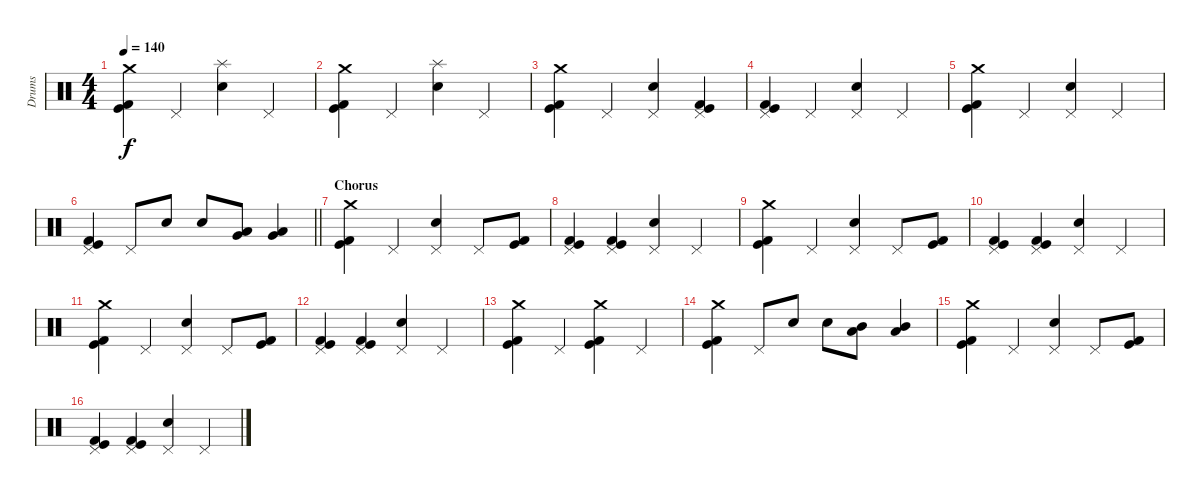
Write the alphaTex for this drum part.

\track ("Drums" "Drums") {instrument percussion}
\staff {score}
\articulation defaults
\ts (4 4)
\tempo 140
\clef neutral
\ks c
("Crash medium (hit)" "Kick (hit) 2" "Kick (hit)").4{dy f} "Pedal Hi-Hat (hit)".4 ("Splash (hit)" "Snare (hit) 2").4 "Pedal Hi-Hat (hit)".4 |
("Crash medium (hit)" "Kick (hit) 2" "Kick (hit)").4 "Pedal Hi-Hat (hit)".4 ("Splash (hit)" "Snare (hit) 2").4 "Pedal Hi-Hat (hit)".4 |
("Kick (hit) 2" "Kick (hit)" "Crash medium (hit)").4 "Pedal Hi-Hat (hit)".4 ("Pedal Hi-Hat (hit)" "Snare (hit) 2").4 ("Kick (hit)" "Kick (hit) 2" "Pedal Hi-Hat (hit)").4 |
("Pedal Hi-Hat (hit)" "Kick (hit) 2" "Kick (hit)").4 "Pedal Hi-Hat (hit)".4 ("Pedal Hi-Hat (hit)" "Snare (hit) 2").4 "Pedal Hi-Hat (hit)".4 |
("Kick (hit) 2" "Kick (hit)" "Crash medium (hit)").4 "Pedal Hi-Hat (hit)".4 ("Pedal Hi-Hat (hit)" "Snare (hit) 2").4 "Pedal Hi-Hat (hit)".4 |
\barLineRight lightlight
("Pedal Hi-Hat (hit)" "Kick (hit) 2" "Kick (hit)").4 "Pedal Hi-Hat (hit)".8 "Snare (hit) 2".8 "Snare (hit) 2".8 ("Very Low Tom (hit)" "Low Tom (hit)").8 ("Very Low Tom (hit)" "Low Tom (hit)").4 |
\section ("" "Chorus")
("Kick (hit)" "Crash medium (hit)" "Kick (hit) 2").4 "Pedal Hi-Hat (hit)".4 ("Pedal Hi-Hat (hit)" "Snare (hit) 2").4 "Pedal Hi-Hat (hit)".8 ("Kick (hit)" "Kick (hit) 2").8 |
("Pedal Hi-Hat (hit)" "Kick (hit)" "Kick (hit) 2").4 ("Pedal Hi-Hat (hit)" "Kick (hit)" "Kick (hit) 2").4 ("Snare (hit) 2" "Pedal Hi-Hat (hit)").4 "Pedal Hi-Hat (hit)".4 |
("Kick (hit)" "Crash medium (hit)" "Kick (hit) 2").4 "Pedal Hi-Hat (hit)".4 ("Pedal Hi-Hat (hit)" "Snare (hit) 2").4 "Pedal Hi-Hat (hit)".8 ("Kick (hit)" "Kick (hit) 2").8 |
("Pedal Hi-Hat (hit)" "Kick (hit)" "Kick (hit) 2").4 ("Pedal Hi-Hat (hit)" "Kick (hit)" "Kick (hit) 2").4 ("Snare (hit) 2" "Pedal Hi-Hat (hit)").4 "Pedal Hi-Hat (hit)".4 |
("Kick (hit)" "Crash medium (hit)" "Kick (hit) 2").4 "Pedal Hi-Hat (hit)".4 ("Pedal Hi-Hat (hit)" "Snare (hit) 2").4 "Pedal Hi-Hat (hit)".8 ("Kick (hit)" "Kick (hit) 2").8 |
("Pedal Hi-Hat (hit)" "Kick (hit)" "Kick (hit) 2").4 ("Pedal Hi-Hat (hit)" "Kick (hit)" "Kick (hit) 2").4 ("Snare (hit) 2" "Pedal Hi-Hat (hit)").4 "Pedal Hi-Hat (hit)".4 |
("Crash medium (hit)" "Kick (hit)" "Kick (hit) 2").4 "Pedal Hi-Hat (hit)".4 ("Crash medium (hit)" "Kick (hit) 2" "Kick (hit)").4 "Pedal Hi-Hat (hit)".4 |
("Crash medium (hit)" "Kick (hit)" "Kick (hit) 2").4 "Pedal Hi-Hat (hit)".8 "Snare (hit) 2".8 "Snare (hit) 2".8 ("Mid Tom (hit)" "Low Tom (hit)").8 ("Low Tom (hit)" "Mid Tom (hit)").4 |
("Kick (hit)" "Crash medium (hit)" "Kick (hit) 2").4 "Pedal Hi-Hat (hit)".4 ("Pedal Hi-Hat (hit)" "Snare (hit) 2").4 "Pedal Hi-Hat (hit)".8 ("Kick (hit)" "Kick (hit) 2").8 |
("Pedal Hi-Hat (hit)" "Kick (hit)" "Kick (hit) 2").4 ("Pedal Hi-Hat (hit)" "Kick (hit)" "Kick (hit) 2").4 ("Snare (hit) 2" "Pedal Hi-Hat (hit)").4 "Pedal Hi-Hat (hit)".4
